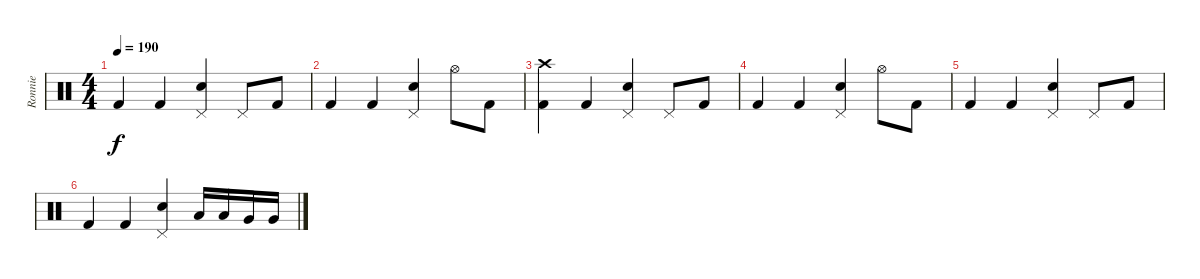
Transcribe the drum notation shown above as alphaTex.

\track ("Ronnie" "Ronnie") {instrument percussion}
\staff {score}
\articulation defaults
\ts (4 4)
\tempo 190
\clef neutral
\ks c "Kick (hit) 2".4{dy f} "Kick (hit) 2".4
("Electric Snare (hit)" "Pedal Hi-Hat (hit)").4 "Pedal Hi-Hat (hit)".8 "Kick (hit) 2".8 |
"Kick (hit) 2".4 "Kick (hit) 2".4 ("Electric Snare (hit)" "Pedal Hi-Hat (hit)").4 "Hi-Hat (open)".8 "Kick (hit) 2".8 |
("Crash high (hit)" "Kick (hit) 2").4 "Kick (hit) 2".4 ("Electric Snare (hit)" "Pedal Hi-Hat (hit)").4 "Pedal Hi-Hat (hit)".8 "Kick (hit) 2".8 |
"Kick (hit) 2".4 "Kick (hit) 2".4 ("Electric Snare (hit)" "Pedal Hi-Hat (hit)").4 "Hi-Hat (open)".8 "Kick (hit) 2".8 |
"Kick (hit) 2".4 "Kick (hit) 2".4 ("Electric Snare (hit)" "Pedal Hi-Hat (hit)").4 "Pedal Hi-Hat (hit)".8 "Kick (hit) 2".8 |
"Kick (hit) 2".4 "Kick (hit) 2".4 ("Electric Snare (hit)" "Pedal Hi-Hat (hit)").4 "Low Tom (hit)".16 "Low Tom (hit)".16 "Very Low Tom (hit)".16 "Very Low Tom (hit)".16
